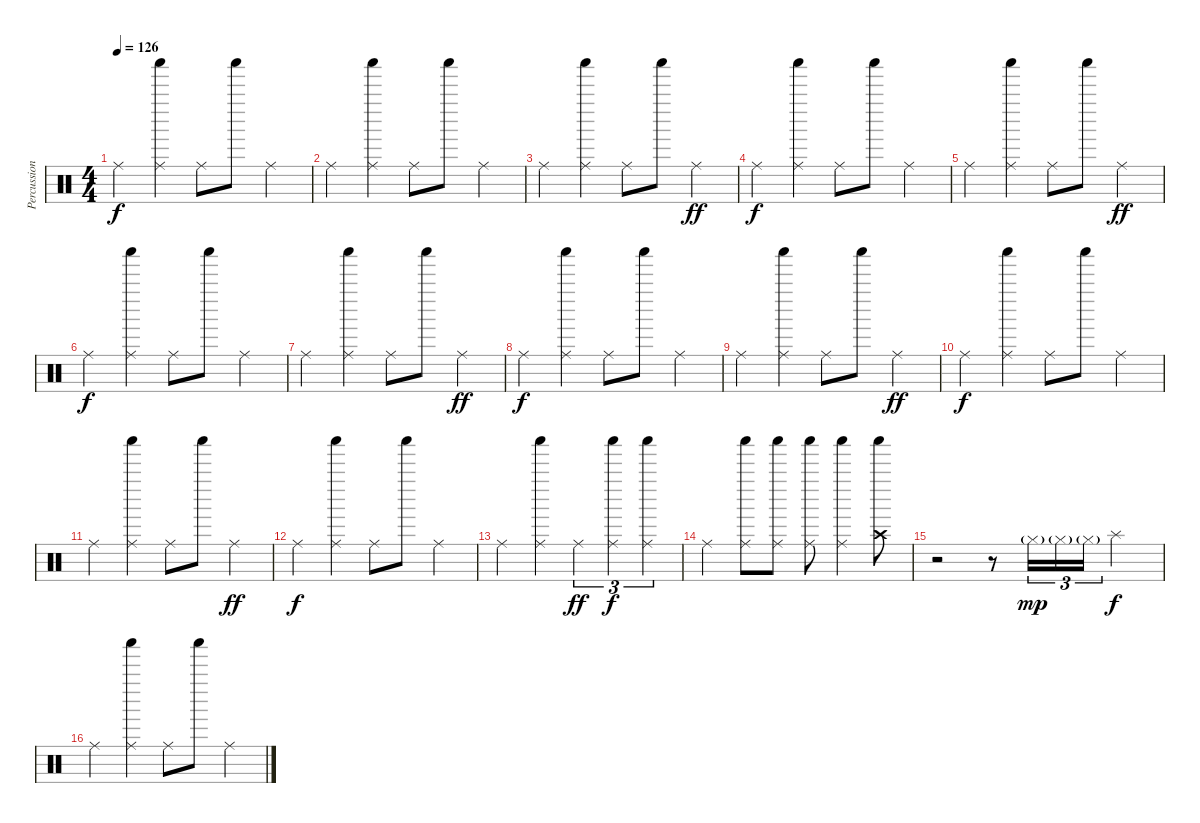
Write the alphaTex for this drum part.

\track ("Percussion" "Percussion") {instrument percussion}
\staff {score}
\articulation defaults
\ts (4 4)
\tempo 126
\clef neutral
\ks c "Ride (middle)".4{dy f}
("Ride (middle)" "Shaker (hit)").4 "Ride (middle)".8 "Shaker (hit)".8 "Ride (middle)".4 |
"Ride (middle)".4 ("Ride (middle)" "Shaker (hit)").4 "Ride (middle)".8 "Shaker (hit)".8 "Ride (middle)".4 |
"Ride (middle)".4 ("Ride (middle)" "Shaker (hit)").4 "Ride (middle)".8 "Shaker (hit)".8 "Ride (middle)".4{dy ff} |
"Ride (middle)".4{dy f} ("Ride (middle)" "Shaker (hit)").4 "Ride (middle)".8 "Shaker (hit)".8 "Ride (middle)".4 |
"Ride (middle)".4 ("Ride (middle)" "Shaker (hit)").4 "Ride (middle)".8 "Shaker (hit)".8 "Ride (middle)".4{dy ff} |
"Ride (middle)".4{dy f} ("Ride (middle)" "Shaker (hit)").4 "Ride (middle)".8 "Shaker (hit)".8 "Ride (middle)".4 |
"Ride (middle)".4 ("Ride (middle)" "Shaker (hit)").4 "Ride (middle)".8 "Shaker (hit)".8 "Ride (middle)".4{dy ff} |
"Ride (middle)".4{dy f} ("Ride (middle)" "Shaker (hit)").4 "Ride (middle)".8 "Shaker (hit)".8 "Ride (middle)".4 |
"Ride (middle)".4 ("Ride (middle)" "Shaker (hit)").4 "Ride (middle)".8 "Shaker (hit)".8 "Ride (middle)".4{dy ff} |
"Ride (middle)".4{dy f} ("Ride (middle)" "Shaker (hit)").4 "Ride (middle)".8 "Shaker (hit)".8 "Ride (middle)".4 |
"Ride (middle)".4 ("Ride (middle)" "Shaker (hit)").4 "Ride (middle)".8 "Shaker (hit)".8 "Ride (middle)".4{dy ff} |
"Ride (middle)".4{dy f} ("Ride (middle)" "Shaker (hit)").4 "Ride (middle)".8 "Shaker (hit)".8 "Ride (middle)".4 |
"Ride (middle)".4 ("Ride (middle)" "Shaker (hit)").4 "Ride (middle)".4{tu (3 2) dy ff} ("Ride (middle)" "Shaker (hit)").4{tu (3 2) dy f} ("Ride (middle)" "Shaker (hit)").4{tu (3 2)} |
"Ride (middle)".4 ("Ride (middle)" "Shaker (hit)").8 ("Ride (middle)" "Shaker (hit)").8 ("Ride (middle)" "Shaker (hit)").8 ("Ride (middle)" "Shaker (hit)").4 ("Crash high (hit)" "Shaker (hit)").8 |
r.2 r.8 "Hi-Hat (closed)"{g}.16{tu (3 2) dy mp} "Hi-Hat (closed)"{g}.16{tu (3 2)} "Hi-Hat (closed)"{g}.16{tu (3 2)} "Splash (hit)".4{dy f} |
"Ride (middle)".4 ("Ride (middle)" "Shaker (hit)").4 "Ride (middle)".8 "Shaker (hit)".8 "Ride (middle)".4
